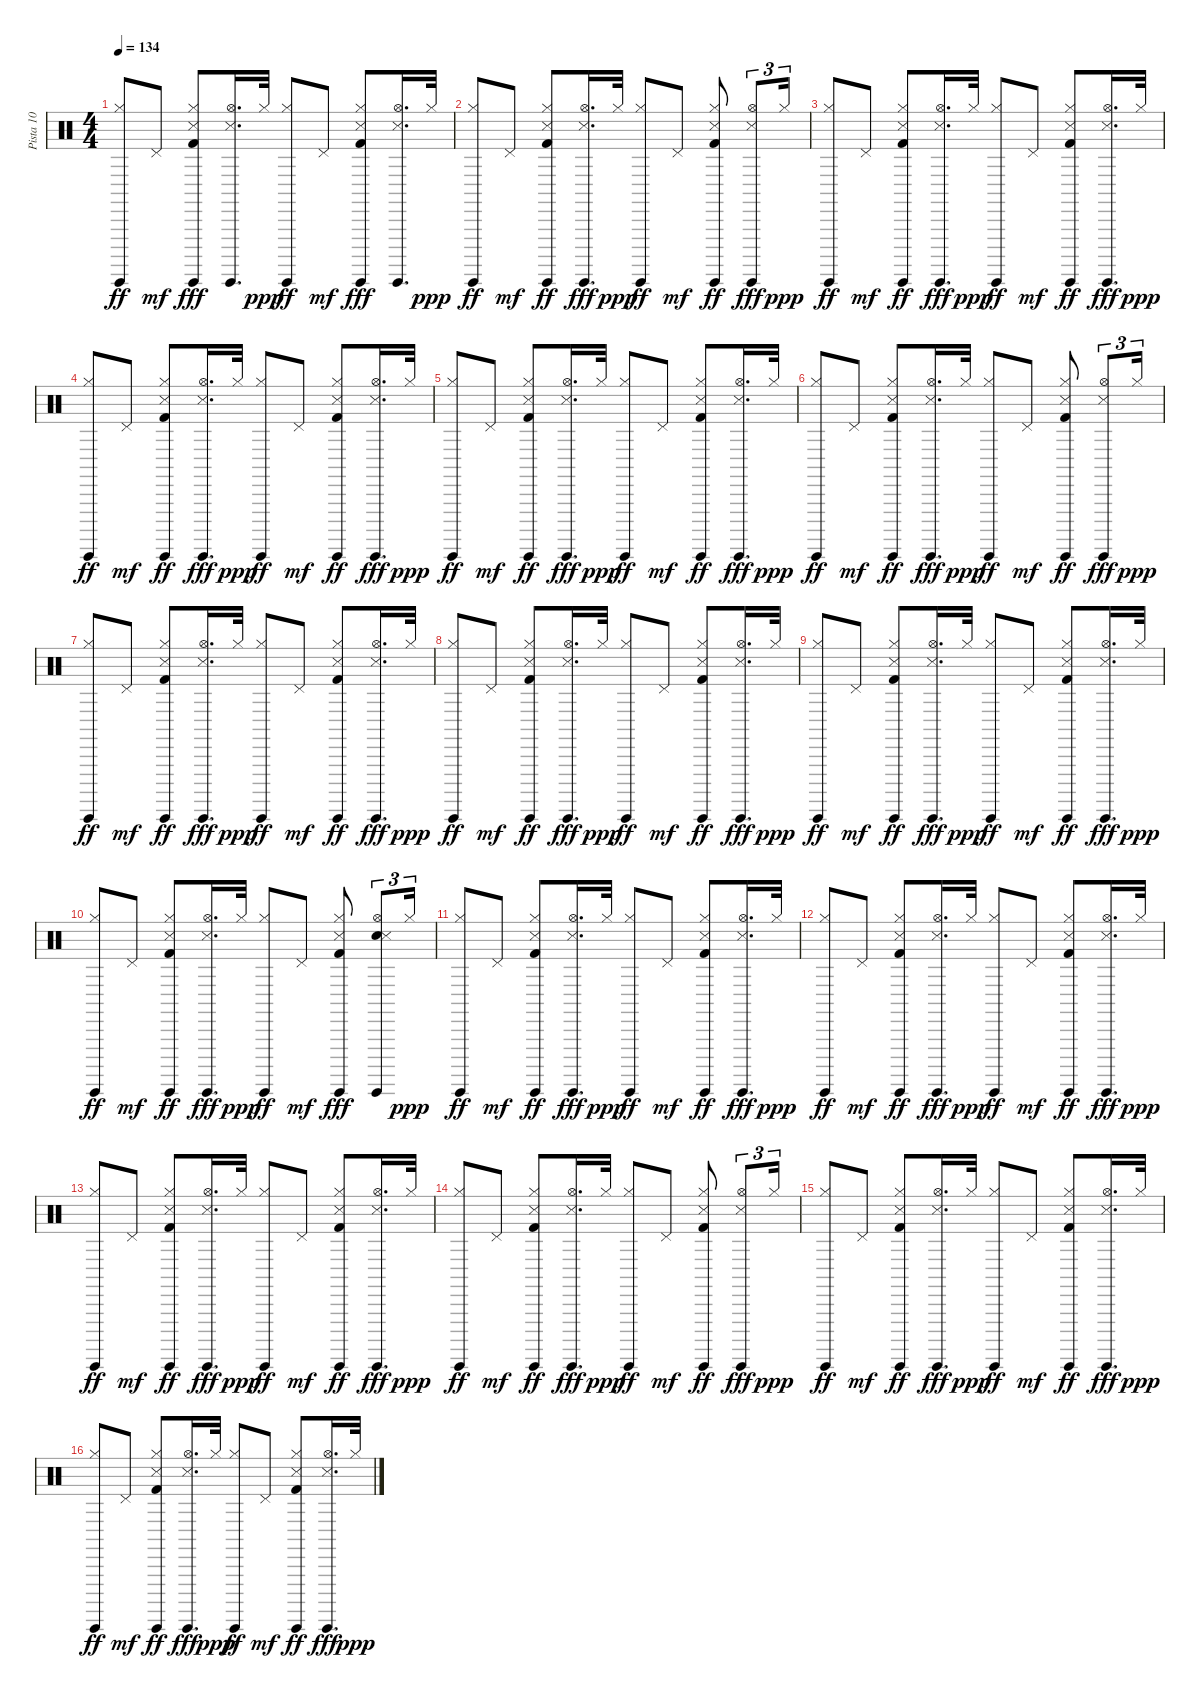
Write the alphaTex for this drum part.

\track ("Pista 10" "Pista 10") {instrument percussion}
\staff {score}
\articulation defaults
\ts (4 4)
\tempo 134
\clef neutral
\ks c
("Guiro (hit)" "Hi-Hat (closed)").8{dy ff} "Pedal Hi-Hat (hit)".8{dy mf} ("Guiro (hit)" "Hi-Hat (closed)" "Kick (hit) 2" "Snare (side stick) 3").8{dy fff} ("Guiro (hit)" "Hi-Hat (open)" "Snare (side stick) 3").16{d} "Hi-Hat (closed)".32{dy ppp} ("Guiro (hit)" "Hi-Hat (closed)").8{dy ff} "Pedal Hi-Hat (hit)".8{dy mf} ("Guiro (hit)" "Hi-Hat (closed)" "Kick (hit) 2" "Snare (side stick) 3").8{dy fff} ("Guiro (hit)" "Hi-Hat (open)" "Snare (side stick) 3").16{d} "Hi-Hat (closed)".32{dy ppp} |
("Guiro (hit)" "Hi-Hat (closed)").8{dy ff} "Pedal Hi-Hat (hit)".8{dy mf} ("Guiro (hit)" "Hi-Hat (closed)" "Snare (side stick) 3" "Kick (hit) 2").8{dy ff} ("Guiro (hit)" "Hi-Hat (open)" "Snare (side stick) 3").16{d dy fff} "Hi-Hat (closed)".32{dy ppp} ("Guiro (hit)" "Hi-Hat (closed)").8{dy ff} "Pedal Hi-Hat (hit)".8{dy mf} ("Guiro (hit)" "Hi-Hat (closed)" "Snare (side stick) 3" "Kick (hit) 2").8{dy ff} ("Guiro (hit)" "Hi-Hat (open)" "Snare (side stick) 3").8{tu (3 2) dy fff} "Hi-Hat (closed)".16{tu (3 2) dy ppp} |
("Guiro (hit)" "Hi-Hat (closed)").8{dy ff} "Pedal Hi-Hat (hit)".8{dy mf} ("Guiro (hit)" "Hi-Hat (closed)" "Snare (side stick) 3" "Kick (hit) 2").8{dy ff} ("Guiro (hit)" "Hi-Hat (open)" "Snare (side stick) 3").16{d dy fff} "Hi-Hat (closed)".32{dy ppp} ("Guiro (hit)" "Hi-Hat (closed)").8{dy ff} "Pedal Hi-Hat (hit)".8{dy mf} ("Guiro (hit)" "Hi-Hat (closed)" "Snare (side stick) 3" "Kick (hit) 2").8{dy ff} ("Guiro (hit)" "Hi-Hat (open)" "Snare (side stick) 3").16{d dy fff} "Hi-Hat (closed)".32{dy ppp} |
("Guiro (hit)" "Hi-Hat (closed)").8{dy ff} "Pedal Hi-Hat (hit)".8{dy mf} ("Guiro (hit)" "Hi-Hat (closed)" "Snare (side stick) 3" "Kick (hit) 2").8{dy ff} ("Guiro (hit)" "Hi-Hat (open)" "Snare (side stick) 3").16{d dy fff} "Hi-Hat (closed)".32{dy ppp} ("Guiro (hit)" "Hi-Hat (closed)").8{dy ff} "Pedal Hi-Hat (hit)".8{dy mf} ("Guiro (hit)" "Hi-Hat (closed)" "Snare (side stick) 3" "Kick (hit) 2").8{dy ff} ("Guiro (hit)" "Hi-Hat (open)" "Snare (side stick) 3").16{d dy fff} "Hi-Hat (closed)".32{dy ppp} |
("Guiro (hit)" "Hi-Hat (closed)").8{dy ff} "Pedal Hi-Hat (hit)".8{dy mf} ("Guiro (hit)" "Hi-Hat (closed)" "Snare (side stick) 3" "Kick (hit) 2").8{dy ff} ("Guiro (hit)" "Hi-Hat (open)" "Snare (side stick) 3").16{d dy fff} "Hi-Hat (closed)".32{dy ppp} ("Guiro (hit)" "Hi-Hat (closed)").8{dy ff} "Pedal Hi-Hat (hit)".8{dy mf} ("Guiro (hit)" "Hi-Hat (closed)" "Snare (side stick) 3" "Kick (hit) 2").8{dy ff} ("Guiro (hit)" "Hi-Hat (open)" "Snare (side stick) 3").16{d dy fff} "Hi-Hat (closed)".32{dy ppp} |
("Guiro (hit)" "Hi-Hat (closed)").8{dy ff} "Pedal Hi-Hat (hit)".8{dy mf} ("Guiro (hit)" "Hi-Hat (closed)" "Snare (side stick) 3" "Kick (hit) 2").8{dy ff} ("Guiro (hit)" "Hi-Hat (open)" "Snare (side stick) 3").16{d dy fff} "Hi-Hat (closed)".32{dy ppp} ("Guiro (hit)" "Hi-Hat (closed)").8{dy ff} "Pedal Hi-Hat (hit)".8{dy mf} ("Guiro (hit)" "Hi-Hat (closed)" "Snare (side stick) 3" "Kick (hit) 2").8{dy ff} ("Guiro (hit)" "Hi-Hat (open)" "Snare (side stick) 3").8{tu (3 2) dy fff} "Hi-Hat (closed)".16{tu (3 2) dy ppp} |
("Guiro (hit)" "Hi-Hat (closed)").8{dy ff} "Pedal Hi-Hat (hit)".8{dy mf} ("Guiro (hit)" "Hi-Hat (closed)" "Snare (side stick) 3" "Kick (hit) 2").8{dy ff} ("Guiro (hit)" "Hi-Hat (open)" "Snare (side stick) 3").16{d dy fff} "Hi-Hat (closed)".32{dy ppp} ("Guiro (hit)" "Hi-Hat (closed)").8{dy ff} "Pedal Hi-Hat (hit)".8{dy mf} ("Guiro (hit)" "Hi-Hat (closed)" "Snare (side stick) 3" "Kick (hit) 2").8{dy ff} ("Guiro (hit)" "Hi-Hat (open)" "Snare (side stick) 3").16{d dy fff} "Hi-Hat (closed)".32{dy ppp} |
("Guiro (hit)" "Hi-Hat (closed)").8{dy ff} "Pedal Hi-Hat (hit)".8{dy mf} ("Guiro (hit)" "Hi-Hat (closed)" "Snare (side stick) 3" "Kick (hit) 2").8{dy ff} ("Guiro (hit)" "Hi-Hat (open)" "Snare (side stick) 3").16{d dy fff} "Hi-Hat (closed)".32{dy ppp} ("Guiro (hit)" "Hi-Hat (closed)").8{dy ff} "Pedal Hi-Hat (hit)".8{dy mf} ("Guiro (hit)" "Hi-Hat (closed)" "Snare (side stick) 3" "Kick (hit) 2").8{dy ff} ("Guiro (hit)" "Hi-Hat (open)" "Snare (side stick) 3").16{d dy fff} "Hi-Hat (closed)".32{dy ppp} |
("Guiro (hit)" "Hi-Hat (closed)").8{dy ff} "Pedal Hi-Hat (hit)".8{dy mf} ("Guiro (hit)" "Hi-Hat (closed)" "Snare (side stick) 3" "Kick (hit) 2").8{dy ff} ("Guiro (hit)" "Hi-Hat (open)" "Snare (side stick) 3").16{d dy fff} "Hi-Hat (closed)".32{dy ppp} ("Guiro (hit)" "Hi-Hat (closed)").8{dy ff} "Pedal Hi-Hat (hit)".8{dy mf} ("Guiro (hit)" "Hi-Hat (closed)" "Snare (side stick) 3" "Kick (hit) 2").8{dy ff} ("Guiro (hit)" "Hi-Hat (open)" "Snare (side stick) 3").16{d dy fff} "Hi-Hat (closed)".32{dy ppp} |
("Guiro (hit)" "Hi-Hat (closed)").8{dy ff} "Pedal Hi-Hat (hit)".8{dy mf} ("Guiro (hit)" "Hi-Hat (closed)" "Snare (side stick) 3" "Kick (hit) 2").8{dy ff} ("Guiro (hit)" "Hi-Hat (open)" "Snare (side stick) 3").16{d dy fff} "Hi-Hat (closed)".32{dy ppp} ("Guiro (hit)" "Hi-Hat (closed)").8{dy ff} "Pedal Hi-Hat (hit)".8{dy mf} ("Guiro (hit)" "Hi-Hat (closed)" "Snare (side stick) 3" "Kick (hit) 2").8{dy fff} ("Electric Snare (hit)" "Guiro (hit)" "Hi-Hat (open)" "Snare (side stick) 3").8{tu (3 2)} "Hi-Hat (closed)".16{tu (3 2) dy ppp} |
("Guiro (hit)" "Hi-Hat (closed)").8{dy ff} "Pedal Hi-Hat (hit)".8{dy mf} ("Guiro (hit)" "Hi-Hat (closed)" "Snare (side stick) 3" "Kick (hit) 2").8{dy ff} ("Guiro (hit)" "Hi-Hat (open)" "Snare (side stick) 3").16{d dy fff} "Hi-Hat (closed)".32{dy ppp} ("Guiro (hit)" "Hi-Hat (closed)").8{dy ff} "Pedal Hi-Hat (hit)".8{dy mf} ("Guiro (hit)" "Hi-Hat (closed)" "Snare (side stick) 3" "Kick (hit) 2").8{dy ff} ("Guiro (hit)" "Hi-Hat (open)" "Snare (side stick) 3").16{d dy fff} "Hi-Hat (closed)".32{dy ppp} |
("Guiro (hit)" "Hi-Hat (closed)").8{dy ff} "Pedal Hi-Hat (hit)".8{dy mf} ("Guiro (hit)" "Hi-Hat (closed)" "Snare (side stick) 3" "Kick (hit) 2").8{dy ff} ("Guiro (hit)" "Hi-Hat (open)" "Snare (side stick) 3").16{d dy fff} "Hi-Hat (closed)".32{dy ppp} ("Guiro (hit)" "Hi-Hat (closed)").8{dy ff} "Pedal Hi-Hat (hit)".8{dy mf} ("Guiro (hit)" "Hi-Hat (closed)" "Snare (side stick) 3" "Kick (hit) 2").8{dy ff} ("Guiro (hit)" "Hi-Hat (open)" "Snare (side stick) 3").16{d dy fff} "Hi-Hat (closed)".32{dy ppp} |
("Guiro (hit)" "Hi-Hat (closed)").8{dy ff} "Pedal Hi-Hat (hit)".8{dy mf} ("Guiro (hit)" "Hi-Hat (closed)" "Snare (side stick) 3" "Kick (hit) 2").8{dy ff} ("Guiro (hit)" "Hi-Hat (open)" "Snare (side stick) 3").16{d dy fff} "Hi-Hat (closed)".32{dy ppp} ("Guiro (hit)" "Hi-Hat (closed)").8{dy ff} "Pedal Hi-Hat (hit)".8{dy mf} ("Guiro (hit)" "Hi-Hat (closed)" "Snare (side stick) 3" "Kick (hit) 2").8{dy ff} ("Guiro (hit)" "Hi-Hat (open)" "Snare (side stick) 3").16{d dy fff} "Hi-Hat (closed)".32{dy ppp} |
("Guiro (hit)" "Hi-Hat (closed)").8{dy ff} "Pedal Hi-Hat (hit)".8{dy mf} ("Guiro (hit)" "Hi-Hat (closed)" "Snare (side stick) 3" "Kick (hit) 2").8{dy ff} ("Guiro (hit)" "Hi-Hat (open)" "Snare (side stick) 3").16{d dy fff} "Hi-Hat (closed)".32{dy ppp} ("Guiro (hit)" "Hi-Hat (closed)").8{dy ff} "Pedal Hi-Hat (hit)".8{dy mf} ("Guiro (hit)" "Hi-Hat (closed)" "Snare (side stick) 3" "Kick (hit) 2").8{dy ff} ("Guiro (hit)" "Hi-Hat (open)" "Snare (side stick) 3").8{tu (3 2) dy fff} "Hi-Hat (closed)".16{tu (3 2) dy ppp} |
("Guiro (hit)" "Hi-Hat (closed)").8{dy ff} "Pedal Hi-Hat (hit)".8{dy mf} ("Guiro (hit)" "Hi-Hat (closed)" "Snare (side stick) 3" "Kick (hit) 2").8{dy ff} ("Guiro (hit)" "Hi-Hat (open)" "Snare (side stick) 3").16{d dy fff} "Hi-Hat (closed)".32{dy ppp} ("Guiro (hit)" "Hi-Hat (closed)").8{dy ff} "Pedal Hi-Hat (hit)".8{dy mf} ("Guiro (hit)" "Hi-Hat (closed)" "Snare (side stick) 3" "Kick (hit) 2").8{dy ff} ("Guiro (hit)" "Hi-Hat (open)" "Snare (side stick) 3").16{d dy fff} "Hi-Hat (closed)".32{dy ppp} |
("Guiro (hit)" "Hi-Hat (closed)").8{dy ff} "Pedal Hi-Hat (hit)".8{dy mf} ("Guiro (hit)" "Hi-Hat (closed)" "Snare (side stick) 3" "Kick (hit) 2").8{dy ff} ("Guiro (hit)" "Hi-Hat (open)" "Snare (side stick) 3").16{d dy fff} "Hi-Hat (closed)".32{dy ppp} ("Guiro (hit)" "Hi-Hat (closed)").8{dy ff} "Pedal Hi-Hat (hit)".8{dy mf} ("Guiro (hit)" "Hi-Hat (closed)" "Snare (side stick) 3" "Kick (hit) 2").8{dy ff} ("Guiro (hit)" "Hi-Hat (open)" "Snare (side stick) 3").16{d dy fff} "Hi-Hat (closed)".32{dy ppp}
